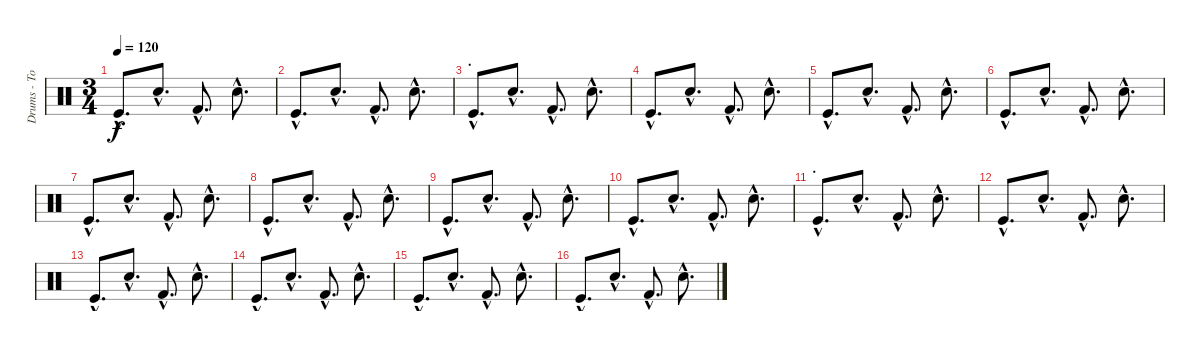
\track ("Drums - Tom" "Drums - To") {instrument percussion}
\staff {score}
\articulation defaults
\ts (3 4)
\tempo 120
\clef neutral
\ks c "Kick (hit)"{hac}.8{d dy f} "Snare (hit) 2"{hac}.8{d} "Kick (hit) 2"{hac}.8{d} "Snare (hit) 2"{hac}.8{d}
|
"Kick (hit)"{hac}.8{d} "Snare (hit) 2"{hac}.8{d} "Kick (hit) 2"{hac}.8{d} "Snare (hit) 2"{hac}.8{d} |
\section ("" ".")
"Kick (hit)"{hac}.8{d} "Snare (hit) 2"{hac}.8{d} "Kick (hit) 2"{hac}.8{d} "Snare (hit) 2"{hac}.8{d} |
"Kick (hit)"{hac}.8{d} "Snare (hit) 2"{hac}.8{d} "Kick (hit) 2"{hac}.8{d} "Snare (hit) 2"{hac}.8{d} |
"Kick (hit)"{hac}.8{d} "Snare (hit) 2"{hac}.8{d} "Kick (hit) 2"{hac}.8{d} "Snare (hit) 2"{hac}.8{d} |
"Kick (hit)"{hac}.8{d} "Snare (hit) 2"{hac}.8{d} "Kick (hit) 2"{hac}.8{d} "Snare (hit) 2"{hac}.8{d} |
"Kick (hit)"{hac}.8{d} "Snare (hit) 2"{hac}.8{d} "Kick (hit) 2"{hac}.8{d} "Snare (hit) 2"{hac}.8{d} |
"Kick (hit)"{hac}.8{d} "Snare (hit) 2"{hac}.8{d} "Kick (hit) 2"{hac}.8{d} "Snare (hit) 2"{hac}.8{d} |
"Kick (hit)"{hac}.8{d} "Snare (hit) 2"{hac}.8{d} "Kick (hit) 2"{hac}.8{d} "Snare (hit) 2"{hac}.8{d} |
"Kick (hit)"{hac}.8{d} "Snare (hit) 2"{hac}.8{d} "Kick (hit) 2"{hac}.8{d} "Snare (hit) 2"{hac}.8{d} |
\section ("" ".")
"Kick (hit)"{hac}.8{d} "Snare (hit) 2"{hac}.8{d} "Kick (hit) 2"{hac}.8{d} "Snare (hit) 2"{hac}.8{d} |
"Kick (hit)"{hac}.8{d} "Snare (hit) 2"{hac}.8{d} "Kick (hit) 2"{hac}.8{d} "Snare (hit) 2"{hac}.8{d} |
"Kick (hit)"{hac}.8{d} "Snare (hit) 2"{hac}.8{d} "Kick (hit) 2"{hac}.8{d} "Snare (hit) 2"{hac}.8{d} |
"Kick (hit)"{hac}.8{d} "Snare (hit) 2"{hac}.8{d} "Kick (hit) 2"{hac}.8{d} "Snare (hit) 2"{hac}.8{d} |
"Kick (hit)"{hac}.8{d} "Snare (hit) 2"{hac}.8{d} "Kick (hit) 2"{hac}.8{d} "Snare (hit) 2"{hac}.8{d} |
"Kick (hit)"{hac}.8{d} "Snare (hit) 2"{hac}.8{d} "Kick (hit) 2"{hac}.8{d} "Snare (hit) 2"{hac}.8{d}
